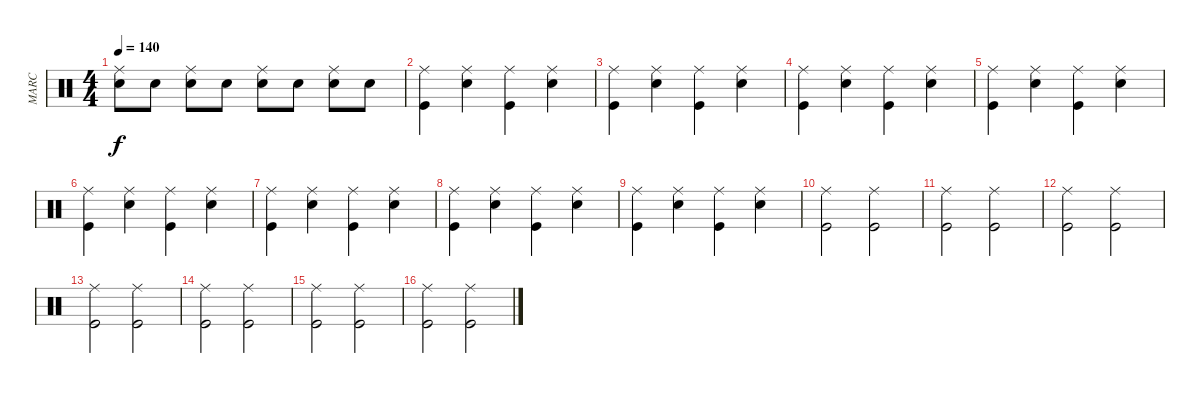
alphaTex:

\track ("MARC" "MARC") {instrument percussion}
\staff {score}
\articulation defaults
\ts (4 4)
\tempo 140
\clef neutral
\ks c
("Snare (hit) 2" "Ride (middle)").8{dy f} "Snare (hit) 2".8 ("Snare (hit) 2" "Ride (middle)").8 "Snare (hit) 2".8 ("Snare (hit) 2" "Ride (middle)").8 "Snare (hit) 2".8 ("Snare (hit) 2" "Ride (middle)").8 "Snare (hit) 2".8 |
("Kick (hit)" "Ride (middle)").4 ("Snare (hit) 2" "Ride (middle)").4 ("Kick (hit)" "Ride (middle)").4 ("Snare (hit) 2" "Ride (middle)").4 |
("Kick (hit)" "Ride (middle)").4 ("Snare (hit) 2" "Ride (middle)").4 ("Kick (hit)" "Ride (middle)").4 ("Snare (hit) 2" "Ride (middle)").4 |
("Kick (hit)" "Ride (middle)").4 ("Snare (hit) 2" "Ride (middle)").4 ("Kick (hit)" "Ride (middle)").4 ("Snare (hit) 2" "Ride (middle)").4 |
("Kick (hit)" "Ride (middle)").4 ("Snare (hit) 2" "Ride (middle)").4 ("Kick (hit)" "Ride (middle)").4 ("Snare (hit) 2" "Ride (middle)").4 |
("Kick (hit)" "Ride (middle)").4 ("Snare (hit) 2" "Ride (middle)").4 ("Kick (hit)" "Ride (middle)").4 ("Snare (hit) 2" "Ride (middle)").4 |
("Kick (hit)" "Ride (middle)").4 ("Snare (hit) 2" "Ride (middle)").4 ("Kick (hit)" "Ride (middle)").4 ("Snare (hit) 2" "Ride (middle)").4 |
("Kick (hit)" "Ride (middle)").4 ("Snare (hit) 2" "Ride (middle)").4 ("Kick (hit)" "Ride (middle)").4 ("Snare (hit) 2" "Ride (middle)").4 |
("Kick (hit)" "Ride (middle)").4 ("Snare (hit) 2" "Ride (middle)").4 ("Kick (hit)" "Ride (middle)").4 ("Snare (hit) 2" "Ride (middle)").4 |
("Kick (hit)" "Ride (middle)").2 ("Kick (hit)" "Ride (middle)").2 |
("Kick (hit)" "Ride (middle)").2 ("Kick (hit)" "Ride (middle)").2 |
("Kick (hit)" "Ride (middle)").2 ("Kick (hit)" "Ride (middle)").2 |
("Kick (hit)" "Ride (middle)").2 ("Kick (hit)" "Ride (middle)").2 |
("Kick (hit)" "Ride (middle)").2 ("Kick (hit)" "Ride (middle)").2 |
("Kick (hit)" "Ride (middle)").2 ("Kick (hit)" "Ride (middle)").2 |
("Kick (hit)" "Ride (middle)").2 ("Kick (hit)" "Ride (middle)").2
